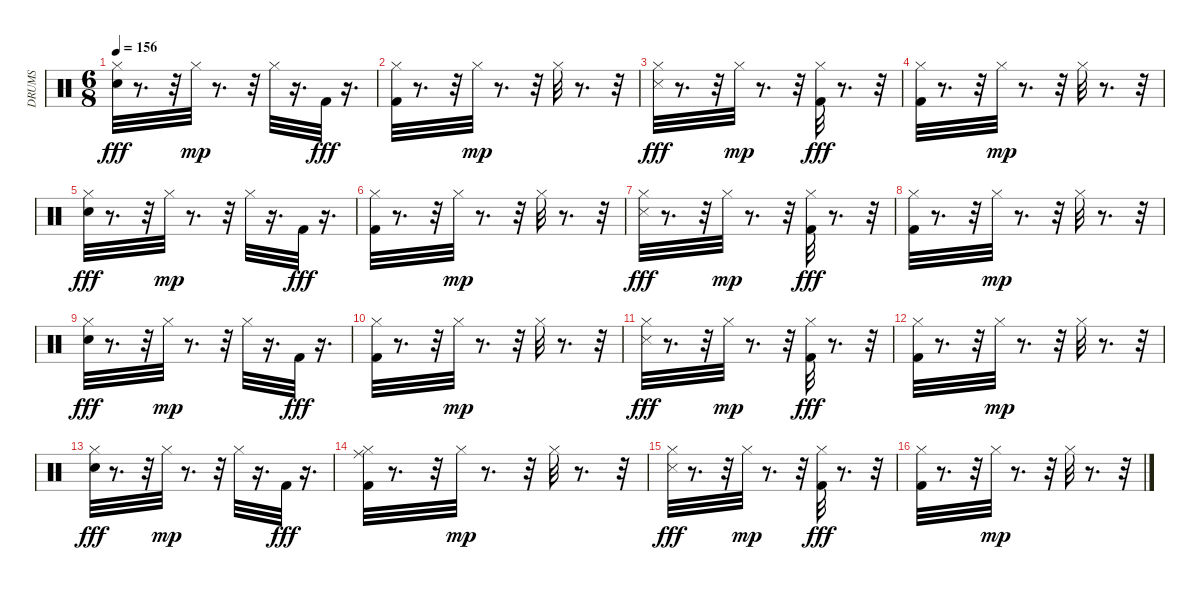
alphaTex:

\track ("DRUMS" "DRUMS") {instrument percussion}
\staff {score}
\articulation defaults
\ts (6 8)
\tempo 156
\clef neutral
\ks c
("Snare (hit) 2" "Hi-Hat (closed)").32{dy fff} r.8{d} r.32 "Hi-Hat (closed)".32{dy mp} r.8{d} r.32 "Hi-Hat (closed)".32 r.16{d} "Kick (hit) 2".32{dy fff} r.16{d} |
("Hi-Hat (closed)" "Kick (hit) 2").32 r.8{d} r.32 "Hi-Hat (closed)".32{dy mp} r.8{d} r.32 "Hi-Hat (closed)".32 r.8{d} r.32 |
("Snare (side stick) 3" "Hi-Hat (closed)").32{dy fff} r.8{d} r.32 "Hi-Hat (closed)".32{dy mp} r.8{d} r.32 ("Hi-Hat (closed)" "Kick (hit) 2").32{dy fff} r.8{d} r.32 |
("Hi-Hat (closed)" "Kick (hit) 2").32 r.8{d} r.32 "Hi-Hat (closed)".32{dy mp} r.8{d} r.32 "Hi-Hat (closed)".32 r.8{d} r.32 |
("Hi-Hat (closed)" "Snare (hit) 2").32{dy fff} r.8{d} r.32 "Hi-Hat (closed)".32{dy mp} r.8{d} r.32 "Hi-Hat (closed)".32 r.16{d} "Kick (hit) 2".32{dy fff} r.16{d} |
("Hi-Hat (closed)" "Kick (hit) 2").32 r.8{d} r.32 "Hi-Hat (closed)".32{dy mp} r.8{d} r.32 "Hi-Hat (closed)".32 r.8{d} r.32 |
("Hi-Hat (closed)" "Snare (side stick) 3").32{dy fff} r.8{d} r.32 "Hi-Hat (closed)".32{dy mp} r.8{d} r.32 ("Hi-Hat (closed)" "Kick (hit) 2").32{dy fff} r.8{d} r.32 |
("Hi-Hat (closed)" "Kick (hit) 2").32 r.8{d} r.32 "Hi-Hat (closed)".32{dy mp} r.8{d} r.32 "Hi-Hat (closed)".32 r.8{d} r.32 |
("Hi-Hat (closed)" "Snare (hit) 2").32{dy fff} r.8{d} r.32 "Hi-Hat (closed)".32{dy mp} r.8{d} r.32 "Hi-Hat (closed)".32 r.16{d} "Kick (hit) 2".32{dy fff} r.16{d} |
("Hi-Hat (closed)" "Kick (hit) 2").32 r.8{d} r.32 "Hi-Hat (closed)".32{dy mp} r.8{d} r.32 "Hi-Hat (closed)".32 r.8{d} r.32 |
("Hi-Hat (closed)" "Snare (side stick) 3").32{dy fff} r.8{d} r.32 "Hi-Hat (closed)".32{dy mp} r.8{d} r.32 ("Hi-Hat (closed)" "Kick (hit) 2").32{dy fff} r.8{d} r.32 |
("Hi-Hat (closed)" "Kick (hit) 2").32 r.8{d} r.32 "Hi-Hat (closed)".32{dy mp} r.8{d} r.32 "Hi-Hat (closed)".32 r.8{d} r.32 |
("Hi-Hat (closed)" "Snare (hit) 2").32{dy fff} r.8{d} r.32 "Hi-Hat (closed)".32{dy mp} r.8{d} r.32 "Hi-Hat (closed)".32 r.16{d} "Kick (hit) 2".32{dy fff} r.16{d} |
("Ride (middle)" "Hi-Hat (closed)" "Kick (hit) 2").32 r.8{d} r.32 "Hi-Hat (closed)".32{dy mp} r.8{d} r.32 "Hi-Hat (closed)".32 r.8{d} r.32 |
("Hi-Hat (closed)" "Snare (side stick) 3").32{dy fff} r.8{d} r.32 "Hi-Hat (closed)".32{dy mp} r.8{d} r.32 ("Hi-Hat (closed)" "Kick (hit) 2").32{dy fff} r.8{d} r.32 |
("Hi-Hat (closed)" "Kick (hit) 2").32 r.8{d} r.32 "Hi-Hat (closed)".32{dy mp} r.8{d} r.32 "Hi-Hat (closed)".32 r.8{d} r.32
